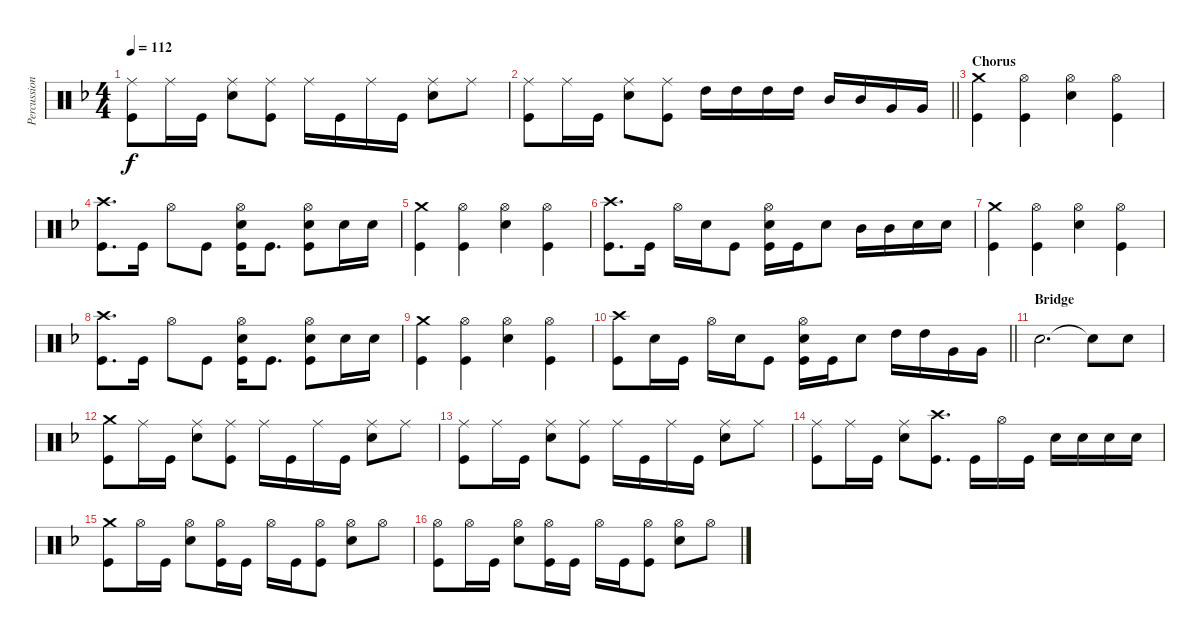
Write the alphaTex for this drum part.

\track ("Percussion" "Percussion") {instrument percussion}
\staff {score}
\articulation defaults
\ts (4 4)
\tempo 112
\clef neutral
\ks f
("Ride (middle)" "Kick (hit)").8{dy f} "Ride (middle)".16 "Kick (hit)".16 ("Ride (middle)" "Electric Snare (hit)").8 ("Ride (middle)" "Kick (hit)").8 "Ride (middle)".16 "Kick (hit)".16 "Ride (middle)".16 "Kick (hit)".16 ("Ride (middle)" "Electric Snare (hit)").8 "Ride (middle)".8 |
\barLineRight lightlight
("Ride (middle)" "Kick (hit)").8 "Ride (middle)".16 "Kick (hit)".16 ("Ride (middle)" "Electric Snare (hit)").8 ("Ride (middle)" "Kick (hit)").8 "High Tom (hit)".16 "High Tom (hit)".16 "High Tom (hit)".16 "High Tom (hit)".16 "Mid Tom (hit)".16 "Mid Tom (hit)".16 "Very Low Tom (hit)".16 "Very Low Tom (hit)".16 |
\section ("" "Chorus")
("Crash medium (hit)" "Kick (hit)").4 ("Hi-Hat (open)" "Kick (hit)").4 ("Hi-Hat (open)" "Electric Snare (hit)").4 ("Hi-Hat (open)" "Kick (hit)").4 |
("Crash high (hit)" "Kick (hit)").8{d} "Kick (hit)".16 "Hi-Hat (open)".8 "Kick (hit)".8 ("Hi-Hat (open)" "Electric Snare (hit)" "Kick (hit)").16 "Kick (hit)".8{d} ("Hi-Hat (open)" "Electric Snare (hit)" "Kick (hit)").8 "Electric Snare (hit)".16 "Electric Snare (hit)".16 |
("Crash medium (hit)" "Kick (hit)").4 ("Hi-Hat (open)" "Kick (hit)").4 ("Hi-Hat (open)" "Electric Snare (hit)").4 ("Hi-Hat (open)" "Kick (hit)").4 |
("Crash high (hit)" "Kick (hit)").8{d} "Kick (hit)".16 "Hi-Hat (open)".16 "Electric Snare (hit)".16 "Kick (hit)".8 ("Hi-Hat (open)" "Electric Snare (hit)" "Kick (hit)").16 "Kick (hit)".16 "Electric Snare (hit)".8 "Mid Tom (hit)".16 "Mid Tom (hit)".16 "Electric Snare (hit)".16 "Electric Snare (hit)".16 |
("Crash medium (hit)" "Kick (hit)").4 ("Hi-Hat (open)" "Kick (hit)").4 ("Hi-Hat (open)" "Electric Snare (hit)").4 ("Hi-Hat (open)" "Kick (hit)").4 |
("Crash high (hit)" "Kick (hit)").8{d} "Kick (hit)".16 "Hi-Hat (open)".8 "Kick (hit)".8 ("Hi-Hat (open)" "Electric Snare (hit)" "Kick (hit)").16 "Kick (hit)".8{d} ("Hi-Hat (open)" "Electric Snare (hit)" "Kick (hit)").8 "Electric Snare (hit)".16 "Electric Snare (hit)".16 |
("Crash medium (hit)" "Kick (hit)").4 ("Hi-Hat (open)" "Kick (hit)").4 ("Hi-Hat (open)" "Electric Snare (hit)").4 ("Hi-Hat (open)" "Kick (hit)").4 |
\barLineRight lightlight
("Crash high (hit)" "Kick (hit)").8 "Electric Snare (hit)".16 "Kick (hit)".16 "Hi-Hat (open)".16 "Electric Snare (hit)".16 "Kick (hit)".8 ("Hi-Hat (open)" "Electric Snare (hit)" "Kick (hit)").16 "Kick (hit)".16 "Electric Snare (hit)".8 "High Tom (hit)".16 "High Tom (hit)".16 "Very Low Tom (hit)".16 "Very Low Tom (hit)".16 |
\section ("" "Bridge")
"Electric Snare (hit)".2{d} "Snare (hit)"{t}.8 "Electric Snare (hit)".8 |
("Crash medium (hit)" "Kick (hit)").8 "Ride (middle)".16 "Kick (hit)".16 ("Ride (middle)" "Electric Snare (hit)").8 ("Ride (middle)" "Kick (hit)").8 "Ride (middle)".16 "Kick (hit)".16 "Ride (middle)".16 "Kick (hit)".16 ("Ride (middle)" "Electric Snare (hit)").8 "Ride (middle)".8 |
("Ride (middle)" "Kick (hit)").8 "Ride (middle)".16 "Kick (hit)".16 ("Ride (middle)" "Electric Snare (hit)").8 ("Ride (middle)" "Kick (hit)").8 "Ride (middle)".16 "Kick (hit)".16 "Ride (middle)".16 "Kick (hit)".16 ("Ride (middle)" "Electric Snare (hit)").8 "Ride (middle)".8 |
("Ride (middle)" "Kick (hit)").8 "Ride (middle)".16 "Kick (hit)".16 ("Ride (middle)" "Electric Snare (hit)").8 ("Crash high (hit)" "Kick (hit)").8{d} "Kick (hit)".16 "Hi-Hat (open)".16 "Kick (hit)".16 "Electric Snare (hit)".16 "Electric Snare (hit)".16 "Electric Snare (hit)".16 "Electric Snare (hit)".16 |
("Crash medium (hit)" "Kick (hit)").8 "Hi-Hat (open)".16 "Kick (hit)".16 ("Hi-Hat (open)" "Electric Snare (hit)").8 ("Hi-Hat (open)" "Kick (hit)").16 "Kick (hit)".16 "Hi-Hat (open)".16 "Kick (hit)".16 ("Hi-Hat (open)" "Kick (hit)").8 ("Hi-Hat (open)" "Electric Snare (hit)").8 "Hi-Hat (open)".8 |
("Hi-Hat (open)" "Kick (hit)").8 "Hi-Hat (open)".16 "Kick (hit)".16 ("Hi-Hat (open)" "Electric Snare (hit)").8 ("Hi-Hat (open)" "Kick (hit)").16 "Kick (hit)".16 "Hi-Hat (open)".16 "Kick (hit)".16 ("Hi-Hat (open)" "Kick (hit)").8 ("Hi-Hat (open)" "Electric Snare (hit)").8 "Hi-Hat (open)".8
